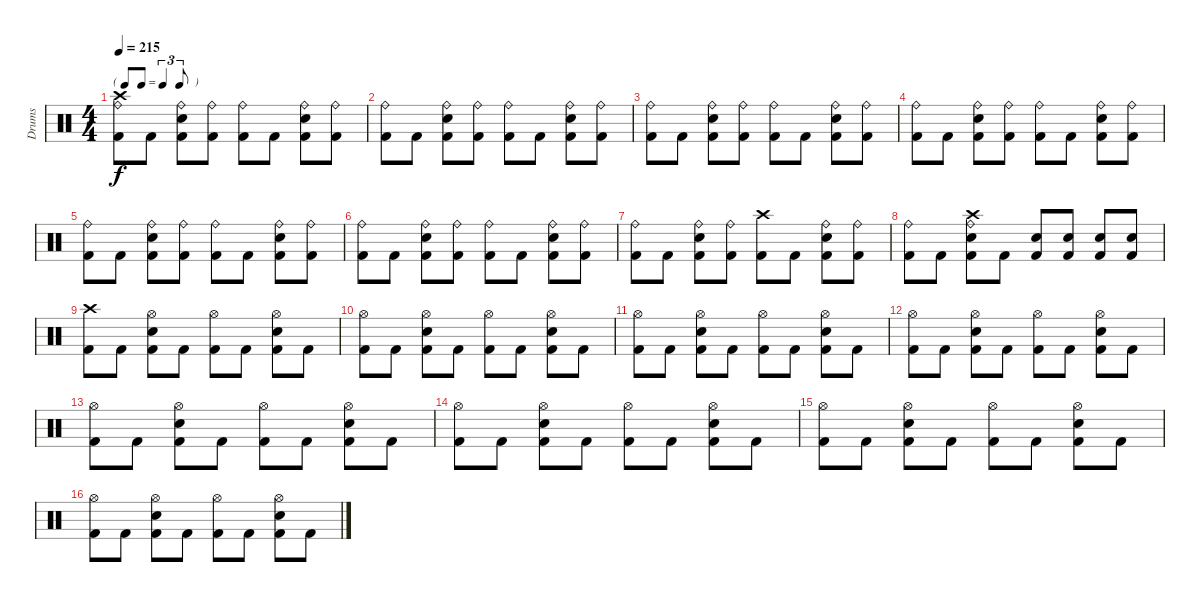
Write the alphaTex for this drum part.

\track ("Drums" "Drums") {instrument percussion}
\staff {score}
\articulation defaults
\ts (4 4)
\tf triplet8th
\tempo 215
\clef neutral
\ks c
("Crash high (hit)" "Ride (bell)" "Kick (hit) 2").8{dy f} "Kick (hit) 2".8 ("Ride (bell)" "Electric Snare (hit)" "Kick (hit) 2").8 ("Ride (bell)" "Kick (hit) 2").8 ("Ride (bell)" "Kick (hit) 2").8 "Kick (hit) 2".8 ("Ride (bell)" "Electric Snare (hit)" "Kick (hit) 2").8 ("Ride (bell)" "Kick (hit) 2").8 |
("Ride (bell)" "Kick (hit) 2").8 "Kick (hit) 2".8 ("Ride (bell)" "Electric Snare (hit)" "Kick (hit) 2").8 ("Ride (bell)" "Kick (hit) 2").8 ("Ride (bell)" "Kick (hit) 2").8 "Kick (hit) 2".8 ("Ride (bell)" "Electric Snare (hit)" "Kick (hit) 2").8 ("Ride (bell)" "Kick (hit) 2").8 |
("Ride (bell)" "Kick (hit) 2").8 "Kick (hit) 2".8 ("Ride (bell)" "Electric Snare (hit)" "Kick (hit) 2").8 ("Ride (bell)" "Kick (hit) 2").8 ("Ride (bell)" "Kick (hit) 2").8 "Kick (hit) 2".8 ("Ride (bell)" "Electric Snare (hit)" "Kick (hit) 2").8 ("Ride (bell)" "Kick (hit) 2").8 |
("Ride (bell)" "Kick (hit) 2").8 "Kick (hit) 2".8 ("Ride (bell)" "Electric Snare (hit)" "Kick (hit) 2").8 ("Ride (bell)" "Kick (hit) 2").8 ("Ride (bell)" "Kick (hit) 2").8 "Kick (hit) 2".8 ("Ride (bell)" "Electric Snare (hit)" "Kick (hit) 2").8 ("Ride (bell)" "Kick (hit) 2").8 |
("Ride (bell)" "Kick (hit) 2").8 "Kick (hit) 2".8 ("Ride (bell)" "Electric Snare (hit)" "Kick (hit) 2").8 ("Ride (bell)" "Kick (hit) 2").8 ("Ride (bell)" "Kick (hit) 2").8 "Kick (hit) 2".8 ("Ride (bell)" "Electric Snare (hit)" "Kick (hit) 2").8 ("Ride (bell)" "Kick (hit) 2").8 |
("Ride (bell)" "Kick (hit) 2").8 "Kick (hit) 2".8 ("Ride (bell)" "Electric Snare (hit)" "Kick (hit) 2").8 ("Ride (bell)" "Kick (hit) 2").8 ("Ride (bell)" "Kick (hit) 2").8 "Kick (hit) 2".8 ("Ride (bell)" "Electric Snare (hit)" "Kick (hit) 2").8 ("Ride (bell)" "Kick (hit) 2").8 |
("Ride (bell)" "Kick (hit) 2").8 "Kick (hit) 2".8 ("Ride (bell)" "Electric Snare (hit)" "Kick (hit) 2").8 ("Ride (bell)" "Kick (hit) 2").8 ("Crash high (hit)" "Kick (hit) 2").8 "Kick (hit) 2".8 ("Ride (bell)" "Electric Snare (hit)" "Kick (hit) 2").8 ("Ride (bell)" "Kick (hit) 2").8 |
("Ride (bell)" "Kick (hit) 2").8 "Kick (hit) 2".8 ("Crash high (hit)" "Ride (bell)" "Electric Snare (hit)" "Kick (hit) 2").8 "Kick (hit) 2".8 ("Electric Snare (hit)" "Kick (hit) 2").8 ("Electric Snare (hit)" "Kick (hit) 2").8 ("Electric Snare (hit)" "Kick (hit) 2").8 ("Electric Snare (hit)" "Kick (hit) 2").8 |
("Crash high (hit)" "Kick (hit) 2").8 "Kick (hit) 2".8 ("Hi-Hat (open)" "Electric Snare (hit)" "Kick (hit) 2").8 "Kick (hit) 2".8 ("Hi-Hat (open)" "Kick (hit) 2").8 "Kick (hit) 2".8 ("Hi-Hat (open)" "Electric Snare (hit)" "Kick (hit) 2").8 "Kick (hit) 2".8 |
("Hi-Hat (open)" "Kick (hit) 2").8 "Kick (hit) 2".8 ("Hi-Hat (open)" "Electric Snare (hit)" "Kick (hit) 2").8 "Kick (hit) 2".8 ("Hi-Hat (open)" "Kick (hit) 2").8 "Kick (hit) 2".8 ("Hi-Hat (open)" "Electric Snare (hit)" "Kick (hit) 2").8 "Kick (hit) 2".8 |
("Hi-Hat (open)" "Kick (hit) 2").8 "Kick (hit) 2".8 ("Hi-Hat (open)" "Electric Snare (hit)" "Kick (hit) 2").8 "Kick (hit) 2".8 ("Hi-Hat (open)" "Kick (hit) 2").8 "Kick (hit) 2".8 ("Hi-Hat (open)" "Electric Snare (hit)" "Kick (hit) 2").8 "Kick (hit) 2".8 |
("Hi-Hat (open)" "Kick (hit) 2").8 "Kick (hit) 2".8 ("Hi-Hat (open)" "Electric Snare (hit)" "Kick (hit) 2").8 "Kick (hit) 2".8 ("Hi-Hat (open)" "Kick (hit) 2").8 "Kick (hit) 2".8 ("Hi-Hat (open)" "Electric Snare (hit)" "Kick (hit) 2").8 "Kick (hit) 2".8 |
("Hi-Hat (open)" "Kick (hit) 2").8 "Kick (hit) 2".8 ("Hi-Hat (open)" "Electric Snare (hit)" "Kick (hit) 2").8 "Kick (hit) 2".8 ("Hi-Hat (open)" "Kick (hit) 2").8 "Kick (hit) 2".8 ("Hi-Hat (open)" "Electric Snare (hit)" "Kick (hit) 2").8 "Kick (hit) 2".8 |
("Hi-Hat (open)" "Kick (hit) 2").8 "Kick (hit) 2".8 ("Hi-Hat (open)" "Electric Snare (hit)" "Kick (hit) 2").8 "Kick (hit) 2".8 ("Hi-Hat (open)" "Kick (hit) 2").8 "Kick (hit) 2".8 ("Hi-Hat (open)" "Electric Snare (hit)" "Kick (hit) 2").8 "Kick (hit) 2".8 |
("Hi-Hat (open)" "Kick (hit) 2").8 "Kick (hit) 2".8 ("Hi-Hat (open)" "Electric Snare (hit)" "Kick (hit) 2").8 "Kick (hit) 2".8 ("Hi-Hat (open)" "Kick (hit) 2").8 "Kick (hit) 2".8 ("Hi-Hat (open)" "Electric Snare (hit)" "Kick (hit) 2").8 "Kick (hit) 2".8 |
("Hi-Hat (open)" "Kick (hit) 2").8 "Kick (hit) 2".8 ("Hi-Hat (open)" "Electric Snare (hit)" "Kick (hit) 2").8 "Kick (hit) 2".8 ("Hi-Hat (open)" "Kick (hit) 2").8 "Kick (hit) 2".8 ("Hi-Hat (open)" "Electric Snare (hit)" "Kick (hit) 2").8 "Kick (hit) 2".8
